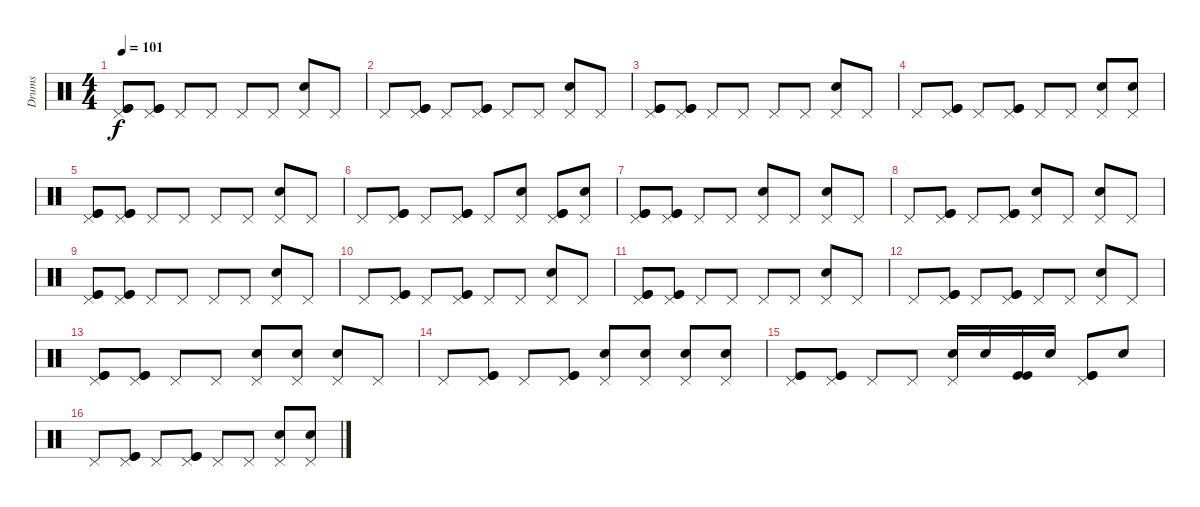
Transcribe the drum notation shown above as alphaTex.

\track ("Drums" "Drums") {instrument percussion}
\staff {score}
\articulation defaults
\ts (4 4)
\tempo 101
\clef neutral
\ks c
("Pedal Hi-Hat (hit)" "Kick (hit)" "Kick (hit)").8{dy f} ("Pedal Hi-Hat (hit)" "Kick (hit)" "Kick (hit)").8 "Pedal Hi-Hat (hit)".8 "Pedal Hi-Hat (hit)".8 "Pedal Hi-Hat (hit)".8 "Pedal Hi-Hat (hit)".8 ("Pedal Hi-Hat (hit)" "Electric Snare (hit)").8 "Pedal Hi-Hat (hit)".8 |
"Pedal Hi-Hat (hit)".8 ("Pedal Hi-Hat (hit)" "Kick (hit)" "Kick (hit)").8 "Pedal Hi-Hat (hit)".8 ("Pedal Hi-Hat (hit)" "Kick (hit)" "Kick (hit)").8 "Pedal Hi-Hat (hit)".8 "Pedal Hi-Hat (hit)".8 ("Pedal Hi-Hat (hit)" "Electric Snare (hit)").8 "Pedal Hi-Hat (hit)".8 |
("Pedal Hi-Hat (hit)" "Kick (hit)" "Kick (hit)").8 ("Pedal Hi-Hat (hit)" "Kick (hit)" "Kick (hit)").8 "Pedal Hi-Hat (hit)".8 "Pedal Hi-Hat (hit)".8 "Pedal Hi-Hat (hit)".8 "Pedal Hi-Hat (hit)".8 ("Pedal Hi-Hat (hit)" "Electric Snare (hit)").8 "Pedal Hi-Hat (hit)".8 |
"Pedal Hi-Hat (hit)".8 ("Pedal Hi-Hat (hit)" "Kick (hit)" "Kick (hit)").8 "Pedal Hi-Hat (hit)".8 ("Pedal Hi-Hat (hit)" "Kick (hit)" "Kick (hit)").8 "Pedal Hi-Hat (hit)".8 "Pedal Hi-Hat (hit)".8 ("Pedal Hi-Hat (hit)" "Electric Snare (hit)").8 ("Pedal Hi-Hat (hit)" "Electric Snare (hit)").8 |
("Pedal Hi-Hat (hit)" "Kick (hit)" "Kick (hit)").8 ("Pedal Hi-Hat (hit)" "Kick (hit)" "Kick (hit)").8 "Pedal Hi-Hat (hit)".8 "Pedal Hi-Hat (hit)".8 "Pedal Hi-Hat (hit)".8 "Pedal Hi-Hat (hit)".8 ("Pedal Hi-Hat (hit)" "Electric Snare (hit)").8 "Pedal Hi-Hat (hit)".8 |
"Pedal Hi-Hat (hit)".8 ("Pedal Hi-Hat (hit)" "Kick (hit)" "Kick (hit)").8 "Pedal Hi-Hat (hit)".8 ("Pedal Hi-Hat (hit)" "Kick (hit)" "Kick (hit)").8 "Pedal Hi-Hat (hit)".8 ("Pedal Hi-Hat (hit)" "Electric Snare (hit)").8 ("Pedal Hi-Hat (hit)" "Kick (hit)" "Kick (hit)").8 ("Pedal Hi-Hat (hit)" "Electric Snare (hit)").8 |
("Pedal Hi-Hat (hit)" "Kick (hit)" "Kick (hit)").8 ("Pedal Hi-Hat (hit)" "Kick (hit)" "Kick (hit)").8 "Pedal Hi-Hat (hit)".8 "Pedal Hi-Hat (hit)".8 ("Pedal Hi-Hat (hit)" "Electric Snare (hit)").8 "Pedal Hi-Hat (hit)".8 ("Pedal Hi-Hat (hit)" "Electric Snare (hit)").8 "Pedal Hi-Hat (hit)".8 |
"Pedal Hi-Hat (hit)".8 ("Pedal Hi-Hat (hit)" "Kick (hit)" "Kick (hit)").8 "Pedal Hi-Hat (hit)".8 ("Pedal Hi-Hat (hit)" "Kick (hit)" "Kick (hit)").8 ("Pedal Hi-Hat (hit)" "Electric Snare (hit)").8 "Pedal Hi-Hat (hit)".8 ("Pedal Hi-Hat (hit)" "Electric Snare (hit)").8 "Pedal Hi-Hat (hit)".8 |
("Pedal Hi-Hat (hit)" "Kick (hit)" "Kick (hit)").8 ("Pedal Hi-Hat (hit)" "Kick (hit)" "Kick (hit)").8 "Pedal Hi-Hat (hit)".8 "Pedal Hi-Hat (hit)".8 "Pedal Hi-Hat (hit)".8 "Pedal Hi-Hat (hit)".8 ("Pedal Hi-Hat (hit)" "Electric Snare (hit)").8 "Pedal Hi-Hat (hit)".8 |
"Pedal Hi-Hat (hit)".8 ("Pedal Hi-Hat (hit)" "Kick (hit)" "Kick (hit)").8 "Pedal Hi-Hat (hit)".8 ("Pedal Hi-Hat (hit)" "Kick (hit)" "Kick (hit)").8 "Pedal Hi-Hat (hit)".8 "Pedal Hi-Hat (hit)".8 ("Pedal Hi-Hat (hit)" "Electric Snare (hit)").8 "Pedal Hi-Hat (hit)".8 |
("Pedal Hi-Hat (hit)" "Kick (hit)" "Kick (hit)").8 ("Pedal Hi-Hat (hit)" "Kick (hit)" "Kick (hit)").8 "Pedal Hi-Hat (hit)".8 "Pedal Hi-Hat (hit)".8 "Pedal Hi-Hat (hit)".8 "Pedal Hi-Hat (hit)".8 ("Pedal Hi-Hat (hit)" "Electric Snare (hit)").8 "Pedal Hi-Hat (hit)".8 |
"Pedal Hi-Hat (hit)".8 ("Pedal Hi-Hat (hit)" "Kick (hit)" "Kick (hit)").8 "Pedal Hi-Hat (hit)".8 ("Pedal Hi-Hat (hit)" "Kick (hit)" "Kick (hit)").8 "Pedal Hi-Hat (hit)".8 "Pedal Hi-Hat (hit)".8 ("Pedal Hi-Hat (hit)" "Electric Snare (hit)").8 "Pedal Hi-Hat (hit)".8 |
("Pedal Hi-Hat (hit)" "Kick (hit)" "Kick (hit)").8 ("Pedal Hi-Hat (hit)" "Kick (hit)" "Kick (hit)").8 "Pedal Hi-Hat (hit)".8 "Pedal Hi-Hat (hit)".8 ("Pedal Hi-Hat (hit)" "Electric Snare (hit)").8 ("Pedal Hi-Hat (hit)" "Electric Snare (hit)").8 ("Pedal Hi-Hat (hit)" "Electric Snare (hit)").8 "Pedal Hi-Hat (hit)".8 |
"Pedal Hi-Hat (hit)".8 ("Pedal Hi-Hat (hit)" "Kick (hit)" "Kick (hit)").8 "Pedal Hi-Hat (hit)".8 ("Pedal Hi-Hat (hit)" "Kick (hit)" "Kick (hit)").8 ("Pedal Hi-Hat (hit)" "Electric Snare (hit)").8 ("Pedal Hi-Hat (hit)" "Electric Snare (hit)").8 ("Pedal Hi-Hat (hit)" "Electric Snare (hit)").8 ("Pedal Hi-Hat (hit)" "Electric Snare (hit)").8 |
("Pedal Hi-Hat (hit)" "Kick (hit)" "Kick (hit)").8 ("Pedal Hi-Hat (hit)" "Kick (hit)" "Kick (hit)").8 "Pedal Hi-Hat (hit)".8 "Pedal Hi-Hat (hit)".8 ("Pedal Hi-Hat (hit)" "Electric Snare (hit)").16 "Electric Snare (hit)".16 ("Kick (hit)" "Kick (hit)").16 "Electric Snare (hit)".16 ("Pedal Hi-Hat (hit)" "Kick (hit)" "Kick (hit)").8 "Electric Snare (hit)".8 |
"Pedal Hi-Hat (hit)".8 ("Pedal Hi-Hat (hit)" "Kick (hit)" "Kick (hit)").8 "Pedal Hi-Hat (hit)".8 ("Pedal Hi-Hat (hit)" "Kick (hit)" "Kick (hit)").8 "Pedal Hi-Hat (hit)".8 "Pedal Hi-Hat (hit)".8 ("Pedal Hi-Hat (hit)" "Electric Snare (hit)").8 ("Pedal Hi-Hat (hit)" "Electric Snare (hit)").8
